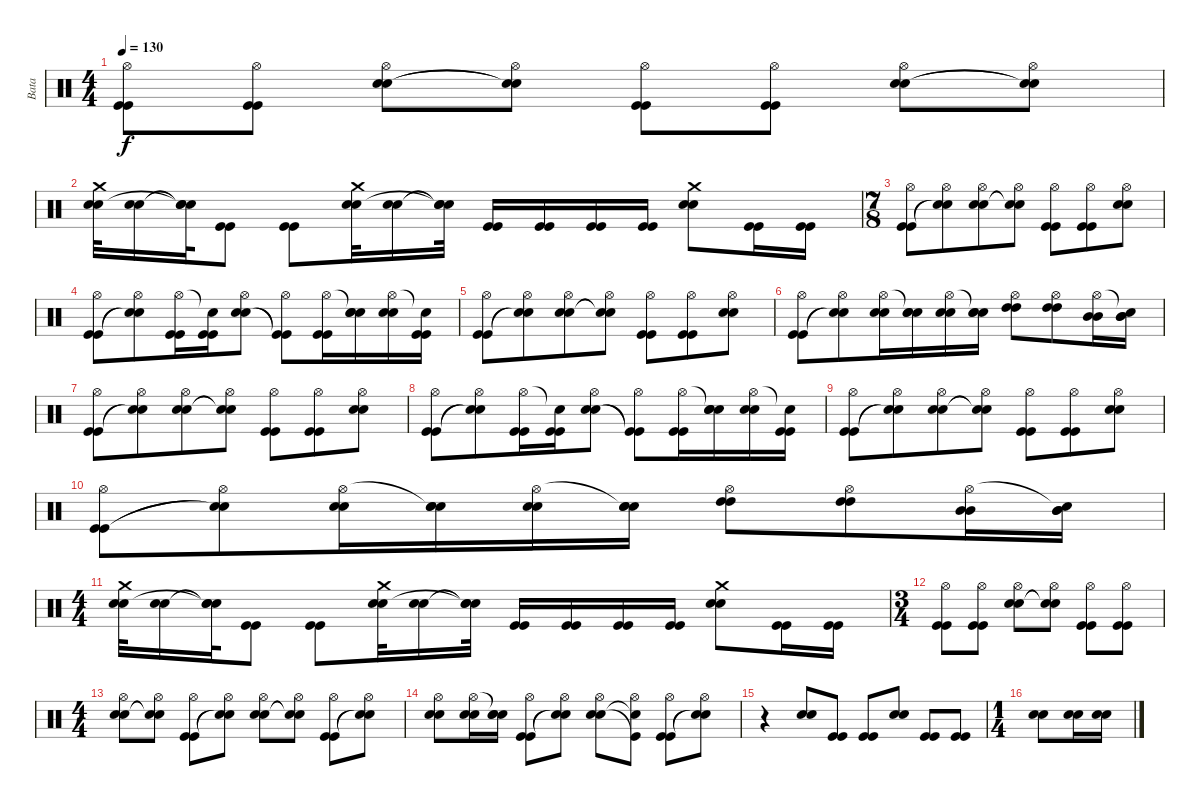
\track ("Bata" "Bata") {instrument percussion}
\staff {score}
\articulation defaults
\ts (4 4)
\tempo 130
\clef neutral
\ks c
("Hi-Hat (open)" "Kick (hit)" "Kick (hit)").8{dy f} ("Hi-Hat (open)" "Kick (hit)" "Kick (hit)").8 ("Hi-Hat (open)" "Snare (hit) 2" "Snare (hit) 2").8 ("Hi-Hat (open)" "Snare (hit)"{t} "Snare (hit)"{t}).8 ("Hi-Hat (open)" "Kick (hit)" "Kick (hit)").8 ("Hi-Hat (open)" "Kick (hit)" "Kick (hit)").8 ("Hi-Hat (open)" "Snare (hit) 2" "Snare (hit) 2").8 ("Hi-Hat (open)" "Snare (hit)"{t} "Snare (hit)"{t}).8 |
("Crash medium (hit)" "Snare (hit) 2" "Snare (hit) 2").32 ("Snare (hit) 2" "Snare (hit) 2").16 ("Snare (hit)"{t} "Snare (hit)"{t} "Snare (hit)"{t}).32 ("Kick (hit)" "Kick (hit)").8 ("Kick (hit)" "Kick (hit)").8 ("Crash medium (hit)" "Snare (hit) 2" "Snare (hit) 2").32 ("Snare (hit) 2" "Snare (hit) 2").16 ("Snare (hit)"{t} "Snare (hit)"{t} "Snare (hit)"{t}).32 ("Kick (hit)" "Kick (hit)").16 ("Kick (hit)" "Kick (hit)").16 ("Kick (hit)" "Kick (hit)").16 ("Kick (hit)" "Kick (hit)").16 ("Crash medium (hit)" "Snare (hit) 2" "Snare (hit) 2").8 ("Kick (hit)" "Kick (hit)").16 ("Kick (hit)" "Kick (hit)").16 |
\ts (7 8)
("Hi-Hat (open)" "Kick (hit)" "Kick (hit)").8 ("Hi-Hat (open)" "Snare (hit)"{t} "Snare (hit)"{t}).8 ("Hi-Hat (open)" "Snare (hit) 2" "Snare (hit) 2").8 ("Hi-Hat (open)" "Snare (hit)"{t} "Snare (hit)"{t}).8 ("Hi-Hat (open)" "Kick (hit)" "Kick (hit)").8 ("Hi-Hat (open)" "Kick (hit)" "Kick (hit)").8 ("Hi-Hat (open)" "Snare (hit) 2" "Snare (hit) 2").8 |
("Hi-Hat (open)" "Kick (hit)" "Kick (hit)").8 ("Hi-Hat (open)" "Snare (hit)"{t} "Snare (hit)"{t}).8 ("Hi-Hat (open)" "Kick (hit)" "Kick (hit)").16 ("Snare (hit)"{t} "Kick (hit)" "Kick (hit)").16 ("Hi-Hat (open)" "Snare (hit) 2" "Snare (hit) 2").8 ("Hi-Hat (open)" "Kick (hit)"{t} "Kick (hit)"{t}).8 ("Hi-Hat (open)" "Kick (hit)" "Kick (hit)").16 ("Snare (hit)"{t} "Snare (hit) 2" "Snare (hit) 2").16 ("Hi-Hat (open)" "Snare (hit) 2" "Snare (hit) 2").16 ("Snare (hit)"{t} "Kick (hit)" "Kick (hit)").16 |
("Hi-Hat (open)" "Kick (hit)" "Kick (hit)").8 ("Hi-Hat (open)" "Snare (hit)"{t} "Snare (hit)"{t}).8 ("Hi-Hat (open)" "Snare (hit) 2" "Snare (hit) 2").8 ("Hi-Hat (open)" "Snare (hit)"{t} "Snare (hit)"{t}).8 ("Hi-Hat (open)" "Kick (hit)" "Kick (hit)").8 ("Hi-Hat (open)" "Kick (hit)" "Kick (hit)").8 ("Hi-Hat (open)" "Snare (hit) 2" "Snare (hit) 2").8 |
("Hi-Hat (open)" "Kick (hit)" "Kick (hit)").8 ("Hi-Hat (open)" "Snare (hit)"{t} "Snare (hit)"{t}).8 ("Hi-Hat (open)" "Snare (hit) 2" "Snare (hit) 2").16 ("Snare (hit)"{t} "Snare (hit) 2" "Snare (hit) 2").16 ("Hi-Hat (open)" "Snare (hit) 2" "Snare (hit) 2").16 ("Snare (hit)"{t} "Snare (hit) 2" "Snare (hit) 2").16 ("Hi-Hat (open)" "High Tom (hit)" "High Tom (hit)").8 ("Hi-Hat (open)" "High Tom (hit)" "High Tom (hit)").8 ("Hi-Hat (open)" "Mid Tom (hit)" "Mid Tom (hit)").16 ("Snare (hit)"{t} "Mid Tom (hit)" "Mid Tom (hit)").16 |
("Hi-Hat (open)" "Kick (hit)" "Kick (hit)").8 ("Hi-Hat (open)" "Snare (hit)"{t} "Snare (hit)"{t}).8 ("Hi-Hat (open)" "Snare (hit) 2" "Snare (hit) 2").8 ("Hi-Hat (open)" "Snare (hit)"{t} "Snare (hit)"{t}).8 ("Hi-Hat (open)" "Kick (hit)" "Kick (hit)").8 ("Hi-Hat (open)" "Kick (hit)" "Kick (hit)").8 ("Hi-Hat (open)" "Snare (hit) 2" "Snare (hit) 2").8 |
("Hi-Hat (open)" "Kick (hit)" "Kick (hit)").8 ("Hi-Hat (open)" "Snare (hit)"{t} "Snare (hit)"{t}).8 ("Hi-Hat (open)" "Kick (hit)" "Kick (hit)").16 ("Snare (hit)"{t} "Kick (hit)" "Kick (hit)").16 ("Hi-Hat (open)" "Snare (hit) 2" "Snare (hit) 2").8 ("Hi-Hat (open)" "Kick (hit)"{t} "Kick (hit)"{t}).8 ("Hi-Hat (open)" "Kick (hit)" "Kick (hit)").16 ("Snare (hit)"{t} "Snare (hit) 2" "Snare (hit) 2").16 ("Hi-Hat (open)" "Snare (hit) 2" "Snare (hit) 2").16 ("Snare (hit)"{t} "Kick (hit)" "Kick (hit)").16 |
("Hi-Hat (open)" "Kick (hit)" "Kick (hit)").8 ("Hi-Hat (open)" "Snare (hit)"{t} "Snare (hit)"{t}).8 ("Hi-Hat (open)" "Snare (hit) 2" "Snare (hit) 2").8 ("Hi-Hat (open)" "Snare (hit)"{t} "Snare (hit)"{t}).8 ("Hi-Hat (open)" "Kick (hit)" "Kick (hit)").8 ("Hi-Hat (open)" "Kick (hit)" "Kick (hit)").8 ("Hi-Hat (open)" "Snare (hit) 2" "Snare (hit) 2").8 |
("Hi-Hat (open)" "Kick (hit)" "Kick (hit)").8 ("Hi-Hat (open)" "Snare (hit)"{t} "Snare (hit)"{t}).8 ("Hi-Hat (open)" "Snare (hit) 2" "Snare (hit) 2").16 ("Snare (hit)"{t} "Snare (hit) 2" "Snare (hit) 2").16 ("Hi-Hat (open)" "Snare (hit) 2" "Snare (hit) 2").16 ("Snare (hit)"{t} "Snare (hit) 2" "Snare (hit) 2").16 ("Hi-Hat (open)" "High Tom (hit)" "High Tom (hit)").8 ("Hi-Hat (open)" "High Tom (hit)" "High Tom (hit)").8 ("Hi-Hat (open)" "Mid Tom (hit)" "Mid Tom (hit)").16 ("Snare (hit)"{t} "Mid Tom (hit)" "Mid Tom (hit)").16 |
\ts (4 4)
("Crash medium (hit)" "Snare (hit) 2" "Snare (hit) 2").32 ("Snare (hit) 2" "Snare (hit) 2").16 ("Snare (hit)"{t} "Snare (hit)"{t} "Snare (hit)"{t}).32 ("Kick (hit)" "Kick (hit)").8 ("Kick (hit)" "Kick (hit)").8 ("Crash medium (hit)" "Snare (hit) 2" "Snare (hit) 2").32 ("Snare (hit) 2" "Snare (hit) 2").16 ("Snare (hit)"{t} "Snare (hit)"{t} "Snare (hit)"{t}).32 ("Kick (hit)" "Kick (hit)").16 ("Kick (hit)" "Kick (hit)").16 ("Kick (hit)" "Kick (hit)").16 ("Kick (hit)" "Kick (hit)").16 ("Crash medium (hit)" "Snare (hit) 2" "Snare (hit) 2").8 ("Kick (hit)" "Kick (hit)").16 ("Kick (hit)" "Kick (hit)").16 |
\ts (3 4)
("Hi-Hat (open)" "Kick (hit)" "Kick (hit)").8 ("Hi-Hat (open)" "Kick (hit)" "Kick (hit)").8 ("Hi-Hat (open)" "Snare (hit) 2" "Snare (hit) 2").8 ("Hi-Hat (open)" "Snare (hit)"{t} "Snare (hit)"{t}).8 ("Hi-Hat (open)" "Kick (hit)" "Kick (hit)").8 ("Hi-Hat (open)" "Kick (hit)" "Kick (hit)").8 |
\ts (4 4)
("Hi-Hat (open)" "Snare (hit) 2" "Snare (hit) 2").8 ("Hi-Hat (open)" "Snare (hit)"{t} "Snare (hit)"{t}).8 ("Hi-Hat (open)" "Kick (hit)" "Kick (hit)").8 ("Hi-Hat (open)" "Snare (hit)"{t} "Snare (hit)"{t}).8 ("Hi-Hat (open)" "Snare (hit) 2" "Snare (hit) 2").8 ("Hi-Hat (open)" "Snare (hit)"{t} "Snare (hit)"{t}).8 ("Hi-Hat (open)" "Kick (hit)" "Kick (hit)").8 ("Hi-Hat (open)" "Snare (hit)"{t} "Snare (hit)"{t}).8 |
("Hi-Hat (open)" "Snare (hit) 2" "Snare (hit) 2").8 ("Hi-Hat (open)" "Snare (hit) 2" "Snare (hit) 2").16 ("Snare (hit)"{t} "Snare (hit) 2" "Snare (hit) 2").16 ("Hi-Hat (open)" "Kick (hit)" "Kick (hit)").8 ("Hi-Hat (open)" "Snare (hit)"{t} "Snare (hit)"{t}).8 ("Hi-Hat (open)" "Snare (hit) 2" "Snare (hit) 2").8 ("Hi-Hat (open)" "Snare (hit)"{t} "Kick (hit)"{t}).8 ("Hi-Hat (open)" "Kick (hit)" "Kick (hit)").8 ("Hi-Hat (open)" "Snare (hit)"{t} "Snare (hit)"{t}).8 |
r.4 ("Snare (hit) 2" "Snare (hit) 2").8 ("Kick (hit)" "Kick (hit)").8 ("Kick (hit)" "Kick (hit)").8 ("Snare (hit) 2" "Snare (hit) 2").8 ("Kick (hit)" "Kick (hit)").8 ("Kick (hit)" "Kick (hit)").8 |
\ts (1 4)
("Snare (hit) 2" "Snare (hit) 2").8 ("Snare (hit) 2" "Snare (hit) 2").16 ("Snare (hit) 2" "Snare (hit) 2").16
